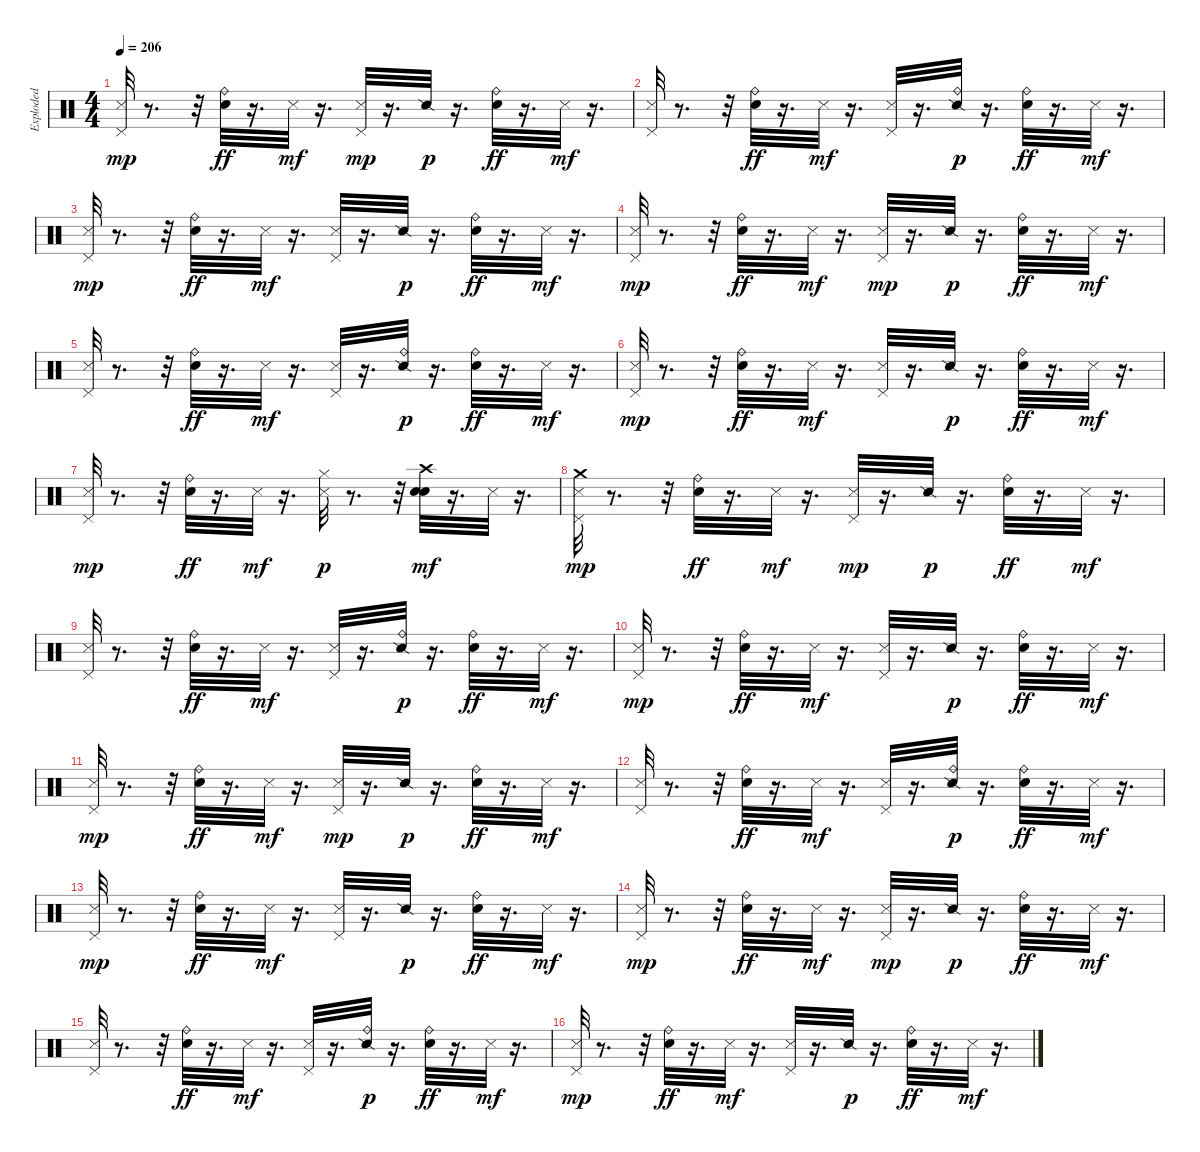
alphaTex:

\track ("Exploded" "Exploded") {instrument percussion}
\staff {score}
\articulation defaults
\ts (4 4)
\tempo 206
\clef neutral
\ks c
("Metronome (hit)" "Pedal Hi-Hat (hit)").32{dy mp} r.8{d} r.32 ("Electric Snare (hit)" "Ride (bell)").32{dy ff} r.16{d} "Metronome (hit)".32{dy mf} r.16{d} ("Metronome (hit)" "Pedal Hi-Hat (hit)").32{dy mp} r.16{d} "Snare (side stick) 2".32{dy p} r.16{d} ("Electric Snare (hit)" "Ride (bell)").32{dy ff} r.16{d} "Metronome (hit)".32{dy mf} r.16{d} |
("Metronome (hit)" "Pedal Hi-Hat (hit)").32 r.8{d} r.32 ("Electric Snare (hit)" "Ride (bell)").32{dy ff} r.16{d} "Metronome (hit)".32{dy mf} r.16{d} ("Metronome (hit)" "Pedal Hi-Hat (hit)").32 r.16{d} ("Snare (side stick) 2" "Ride (bell)").32{dy p} r.16{d} ("Electric Snare (hit)" "Ride (bell)").32{dy ff} r.16{d} "Metronome (hit)".32{dy mf} r.16{d} |
("Metronome (hit)" "Pedal Hi-Hat (hit)").32{dy mp} r.8{d} r.32 ("Electric Snare (hit)" "Ride (bell)").32{dy ff} r.16{d} "Metronome (hit)".32{dy mf} r.16{d} ("Metronome (hit)" "Pedal Hi-Hat (hit)").32 r.16{d} "Snare (side stick) 2".32{dy p} r.16{d} ("Electric Snare (hit)" "Ride (bell)").32{dy ff} r.16{d} "Metronome (hit)".32{dy mf} r.16{d} |
("Metronome (hit)" "Pedal Hi-Hat (hit)").32{dy mp} r.8{d} r.32 ("Electric Snare (hit)" "Ride (bell)").32{dy ff} r.16{d} "Metronome (hit)".32{dy mf} r.16{d} ("Metronome (hit)" "Pedal Hi-Hat (hit)").32{dy mp} r.16{d} "Snare (side stick) 2".32{dy p} r.16{d} ("Electric Snare (hit)" "Ride (bell)").32{dy ff} r.16{d} "Metronome (hit)".32{dy mf} r.16{d} |
("Metronome (hit)" "Pedal Hi-Hat (hit)").32 r.8{d} r.32 ("Electric Snare (hit)" "Ride (bell)").32{dy ff} r.16{d} "Metronome (hit)".32{dy mf} r.16{d} ("Metronome (hit)" "Pedal Hi-Hat (hit)").32 r.16{d} ("Snare (side stick) 2" "Ride (bell)").32{dy p} r.16{d} ("Electric Snare (hit)" "Ride (bell)").32{dy ff} r.16{d} "Metronome (hit)".32{dy mf} r.16{d} |
("Metronome (hit)" "Pedal Hi-Hat (hit)").32{dy mp} r.8{d} r.32 ("Electric Snare (hit)" "Ride (bell)").32{dy ff} r.16{d} "Metronome (hit)".32{dy mf} r.16{d} ("Metronome (hit)" "Pedal Hi-Hat (hit)").32 r.16{d} "Snare (side stick) 2".32{dy p} r.16{d} ("Electric Snare (hit)" "Ride (bell)").32{dy ff} r.16{d} "Metronome (hit)".32{dy mf} r.16{d} |
("Metronome (hit)" "Pedal Hi-Hat (hit)").32{dy mp} r.8{d} r.32 ("Electric Snare (hit)" "Ride (bell)").32{dy ff} r.16{d} "Metronome (hit)".32{dy mf} r.16{d} ("Metronome (hit)" "Hi-Hat (closed)").32{dy p} r.8{d} r.32 ("Metronome (bell)" "Electric Snare (hit)" "Crash high (hit)").32{dy mf} r.16{d} "Metronome (hit)".32 r.16{d} |
("Crash medium (hit)" "Metronome (hit)" "Pedal Hi-Hat (hit)").32{dy mp} r.8{d} r.32 ("Electric Snare (hit)" "Ride (bell)").32{dy ff} r.16{d} "Metronome (hit)".32{dy mf} r.16{d} ("Metronome (hit)" "Pedal Hi-Hat (hit)").32{dy mp} r.16{d} "Snare (side stick) 2".32{dy p} r.16{d} ("Electric Snare (hit)" "Ride (bell)").32{dy ff} r.16{d} "Metronome (hit)".32{dy mf} r.16{d} |
("Metronome (hit)" "Pedal Hi-Hat (hit)").32 r.8{d} r.32 ("Electric Snare (hit)" "Ride (bell)").32{dy ff} r.16{d} "Metronome (hit)".32{dy mf} r.16{d} ("Metronome (hit)" "Pedal Hi-Hat (hit)").32 r.16{d} ("Snare (side stick) 2" "Ride (bell)").32{dy p} r.16{d} ("Electric Snare (hit)" "Ride (bell)").32{dy ff} r.16{d} "Metronome (hit)".32{dy mf} r.16{d} |
("Metronome (hit)" "Pedal Hi-Hat (hit)").32{dy mp} r.8{d} r.32 ("Electric Snare (hit)" "Ride (bell)").32{dy ff} r.16{d} "Metronome (hit)".32{dy mf} r.16{d} ("Metronome (hit)" "Pedal Hi-Hat (hit)").32 r.16{d} "Snare (side stick) 2".32{dy p} r.16{d} ("Electric Snare (hit)" "Ride (bell)").32{dy ff} r.16{d} "Metronome (hit)".32{dy mf} r.16{d} |
("Metronome (hit)" "Pedal Hi-Hat (hit)").32{dy mp} r.8{d} r.32 ("Electric Snare (hit)" "Ride (bell)").32{dy ff} r.16{d} "Metronome (hit)".32{dy mf} r.16{d} ("Metronome (hit)" "Pedal Hi-Hat (hit)").32{dy mp} r.16{d} "Snare (side stick) 2".32{dy p} r.16{d} ("Electric Snare (hit)" "Ride (bell)").32{dy ff} r.16{d} "Metronome (hit)".32{dy mf} r.16{d} |
("Metronome (hit)" "Pedal Hi-Hat (hit)").32 r.8{d} r.32 ("Electric Snare (hit)" "Ride (bell)").32{dy ff} r.16{d} "Metronome (hit)".32{dy mf} r.16{d} ("Metronome (hit)" "Pedal Hi-Hat (hit)").32 r.16{d} ("Snare (side stick) 2" "Ride (bell)").32{dy p} r.16{d} ("Electric Snare (hit)" "Ride (bell)").32{dy ff} r.16{d} "Metronome (hit)".32{dy mf} r.16{d} |
("Metronome (hit)" "Pedal Hi-Hat (hit)").32{dy mp} r.8{d} r.32 ("Electric Snare (hit)" "Ride (bell)").32{dy ff} r.16{d} "Metronome (hit)".32{dy mf} r.16{d} ("Metronome (hit)" "Pedal Hi-Hat (hit)").32 r.16{d} "Snare (side stick) 2".32{dy p} r.16{d} ("Electric Snare (hit)" "Ride (bell)").32{dy ff} r.16{d} "Metronome (hit)".32{dy mf} r.16{d} |
("Metronome (hit)" "Pedal Hi-Hat (hit)").32{dy mp} r.8{d} r.32 ("Electric Snare (hit)" "Ride (bell)").32{dy ff} r.16{d} "Metronome (hit)".32{dy mf} r.16{d} ("Metronome (hit)" "Pedal Hi-Hat (hit)").32{dy mp} r.16{d} "Snare (side stick) 2".32{dy p} r.16{d} ("Electric Snare (hit)" "Ride (bell)").32{dy ff} r.16{d} "Metronome (hit)".32{dy mf} r.16{d} |
("Metronome (hit)" "Pedal Hi-Hat (hit)").32 r.8{d} r.32 ("Electric Snare (hit)" "Ride (bell)").32{dy ff} r.16{d} "Metronome (hit)".32{dy mf} r.16{d} ("Metronome (hit)" "Pedal Hi-Hat (hit)").32 r.16{d} ("Snare (side stick) 2" "Ride (bell)").32{dy p} r.16{d} ("Electric Snare (hit)" "Ride (bell)").32{dy ff} r.16{d} "Metronome (hit)".32{dy mf} r.16{d} |
("Metronome (hit)" "Pedal Hi-Hat (hit)").32{dy mp} r.8{d} r.32 ("Electric Snare (hit)" "Ride (bell)").32{dy ff} r.16{d} "Metronome (hit)".32{dy mf} r.16{d} ("Metronome (hit)" "Pedal Hi-Hat (hit)").32 r.16{d} "Snare (side stick) 2".32{dy p} r.16{d} ("Electric Snare (hit)" "Ride (bell)").32{dy ff} r.16{d} "Metronome (hit)".32{dy mf} r.16{d}
